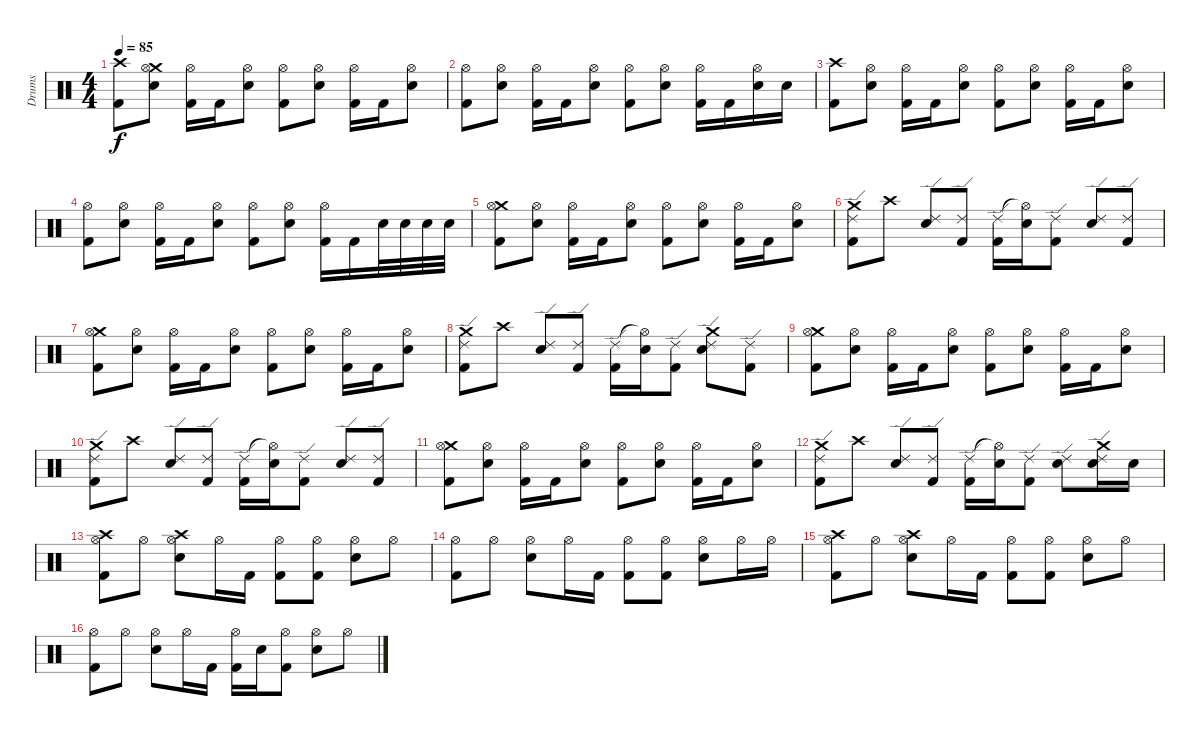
\track ("Drums" "Drums") {instrument percussion}
\staff {score}
\articulation defaults
\ts (4 4)
\tempo 85
\clef neutral
\ks c
("Crash high (hit)" "Kick (hit) 2").8{dy f} ("Crash medium (hit)" "Snare (hit) 2" "Hi-Hat (open)").8 ("Kick (hit) 2" "Hi-Hat (open)").16 "Kick (hit) 2".16 ("Snare (hit) 2" "Hi-Hat (open)").8 ("Kick (hit) 2" "Hi-Hat (open)").8 ("Snare (hit) 2" "Hi-Hat (open)").8 ("Kick (hit) 2" "Hi-Hat (open)").16 "Kick (hit) 2".16 ("Snare (hit) 2" "Hi-Hat (open)").8 |
("Kick (hit) 2" "Hi-Hat (open)").8 ("Snare (hit) 2" "Hi-Hat (open)").8 ("Kick (hit) 2" "Hi-Hat (open)").16 "Kick (hit) 2".16 ("Snare (hit) 2" "Hi-Hat (open)").8 ("Kick (hit) 2" "Hi-Hat (open)").8 ("Snare (hit) 2" "Hi-Hat (open)").8 ("Kick (hit) 2" "Hi-Hat (open)").16 "Kick (hit) 2".16 ("Snare (hit) 2" "Hi-Hat (open)").16 "Snare (hit) 2".16 |
("Crash high (hit)" "Kick (hit) 2").8 ("Snare (hit) 2" "Hi-Hat (open)").8 ("Kick (hit) 2" "Hi-Hat (open)").16 "Kick (hit) 2".16 ("Snare (hit) 2" "Hi-Hat (open)").8 ("Kick (hit) 2" "Hi-Hat (open)").8 ("Snare (hit) 2" "Hi-Hat (open)").8 ("Kick (hit) 2" "Hi-Hat (open)").16 "Kick (hit) 2".16 ("Snare (hit) 2" "Hi-Hat (open)").8 |
("Kick (hit) 2" "Hi-Hat (open)").8 ("Snare (hit) 2" "Hi-Hat (open)").8 ("Kick (hit) 2" "Hi-Hat (open)").16 "Kick (hit) 2".16 ("Snare (hit) 2" "Hi-Hat (open)").8 ("Kick (hit) 2" "Hi-Hat (open)").8 ("Snare (hit) 2" "Hi-Hat (open)").8 ("Kick (hit) 2" "Hi-Hat (open)").16 "Kick (hit) 2".16 "Electric Snare (hit)".32 "Electric Snare (hit)".32 "Electric Snare (hit)".32 "Electric Snare (hit)".32 |
("Crash medium (hit)" "Kick (hit) 2" "Hi-Hat (open)").8 ("Snare (hit)" "Hi-Hat (open)").8 ("Kick (hit) 2" "Hi-Hat (open)").16 "Kick (hit) 2".16 ("Snare (hit) 2" "Hi-Hat (open)").8 ("Kick (hit) 2" "Hi-Hat (open)").8 ("Snare (hit) 2" "Hi-Hat (open)").8 ("Kick (hit) 2" "Hi-Hat (open)").16 "Kick (hit) 2".16 ("Snare (hit) 2" "Hi-Hat (open)").8 |
("Ride (edge) 2" "Crash medium (hit)" "Kick (hit) 2").8 "Crash high (hit)".8 ("Ride (edge) 2" "Snare (hit) 2").8 ("Ride (edge) 2" "Kick (hit) 2").8 ("Ride (edge) 2" "Kick (hit) 2").16 ("Hi-Hat (open)"{t} "Snare (hit) 2").16 ("Ride (edge) 2" "Kick (hit) 2").8 ("Ride (edge) 2" "Snare (hit) 2").8 ("Ride (edge) 2" "Kick (hit) 2").8 |
("Crash medium (hit)" "Kick (hit) 2" "Hi-Hat (open)").8 ("Snare (hit)" "Hi-Hat (open)").8 ("Kick (hit) 2" "Hi-Hat (open)").16 "Kick (hit) 2".16 ("Snare (hit) 2" "Hi-Hat (open)").8 ("Kick (hit) 2" "Hi-Hat (open)").8 ("Snare (hit) 2" "Hi-Hat (open)").8 ("Kick (hit) 2" "Hi-Hat (open)").16 "Kick (hit) 2".16 ("Snare (hit) 2" "Hi-Hat (open)").8 |
("Ride (edge) 2" "Crash medium (hit)" "Kick (hit) 2").8 "Crash high (hit)".8 ("Ride (edge) 2" "Snare (hit) 2").8 ("Ride (edge) 2" "Kick (hit) 2").8 ("Ride (edge) 2" "Kick (hit) 2").16 ("Hi-Hat (open)"{t} "Snare (hit) 2").16 ("Ride (edge) 2" "Kick (hit) 2").8 ("Ride (edge) 2" "Crash medium (hit)" "Snare (hit) 2").8 ("Ride (edge) 2" "Kick (hit) 2").8 |
("Crash medium (hit)" "Kick (hit) 2" "Hi-Hat (open)").8 ("Snare (hit)" "Hi-Hat (open)").8 ("Kick (hit) 2" "Hi-Hat (open)").16 "Kick (hit) 2".16 ("Snare (hit) 2" "Hi-Hat (open)").8 ("Kick (hit) 2" "Hi-Hat (open)").8 ("Snare (hit) 2" "Hi-Hat (open)").8 ("Kick (hit) 2" "Hi-Hat (open)").16 "Kick (hit) 2".16 ("Snare (hit) 2" "Hi-Hat (open)").8 |
("Ride (edge) 2" "Crash medium (hit)" "Kick (hit) 2").8 "Crash high (hit)".8 ("Ride (edge) 2" "Snare (hit) 2").8 ("Ride (edge) 2" "Kick (hit) 2").8 ("Ride (edge) 2" "Kick (hit) 2").16 ("Hi-Hat (open)"{t} "Snare (hit) 2").16 ("Ride (edge) 2" "Kick (hit) 2").8 ("Ride (edge) 2" "Snare (hit) 2").8 ("Ride (edge) 2" "Kick (hit) 2").8 |
("Crash medium (hit)" "Kick (hit) 2" "Hi-Hat (open)").8 ("Snare (hit)" "Hi-Hat (open)").8 ("Kick (hit) 2" "Hi-Hat (open)").16 "Kick (hit) 2".16 ("Snare (hit) 2" "Hi-Hat (open)").8 ("Kick (hit) 2" "Hi-Hat (open)").8 ("Snare (hit) 2" "Hi-Hat (open)").8 ("Kick (hit) 2" "Hi-Hat (open)").16 "Kick (hit) 2".16 ("Snare (hit) 2" "Hi-Hat (open)").8 |
("Ride (edge) 2" "Crash medium (hit)" "Kick (hit) 2").8 "Crash high (hit)".8 ("Ride (edge) 2" "Snare (hit) 2").8 ("Ride (edge) 2" "Kick (hit) 2").8 ("Ride (edge) 2" "Kick (hit) 2").16 ("Hi-Hat (open)"{t} "Snare (hit) 2").16 ("Ride (edge) 2" "Kick (hit) 2").8 ("Ride (edge) 2" "Snare (hit) 2").8 ("Ride (edge) 2" "Crash medium (hit)" "Snare (hit) 2").16 "Snare (hit) 2".16 |
("Hi-Hat (open)" "Crash high (hit)" "Kick (hit) 2").8 "Hi-Hat (open)".8 ("Hi-Hat (open)" "Crash high (hit)" "Snare (hit) 2").8 "Hi-Hat (open)".16 "Kick (hit) 2".16 ("Hi-Hat (open)" "Kick (hit) 2").8 ("Hi-Hat (open)" "Kick (hit) 2").8 ("Hi-Hat (open)" "Snare (hit) 2").8 "Hi-Hat (open)".8 |
("Hi-Hat (open)" "Kick (hit) 2").8 "Hi-Hat (open)".8 ("Hi-Hat (open)" "Snare (hit) 2").8 "Hi-Hat (open)".16 "Kick (hit) 2".16 ("Hi-Hat (open)" "Kick (hit) 2").8 ("Hi-Hat (open)" "Kick (hit) 2").8 ("Hi-Hat (open)" "Snare (hit) 2").8 "Hi-Hat (open)".16 "Hi-Hat (open)".16 |
("Hi-Hat (open)" "Crash high (hit)" "Kick (hit) 2").8 "Hi-Hat (open)".8 ("Hi-Hat (open)" "Crash high (hit)" "Snare (hit) 2").8 "Hi-Hat (open)".16 "Kick (hit) 2".16 ("Hi-Hat (open)" "Kick (hit) 2").8 ("Hi-Hat (open)" "Kick (hit) 2").8 ("Hi-Hat (open)" "Snare (hit) 2").8 "Hi-Hat (open)".8 |
("Hi-Hat (open)" "Kick (hit) 2").8 "Hi-Hat (open)".8 ("Hi-Hat (open)" "Snare (hit) 2").8 "Hi-Hat (open)".16 "Kick (hit) 2".16 ("Hi-Hat (open)" "Kick (hit) 2").16 "Snare (hit) 2".16 ("Hi-Hat (open)" "Kick (hit) 2").8 ("Hi-Hat (open)" "Snare (hit) 2").8 "Hi-Hat (open)".8
